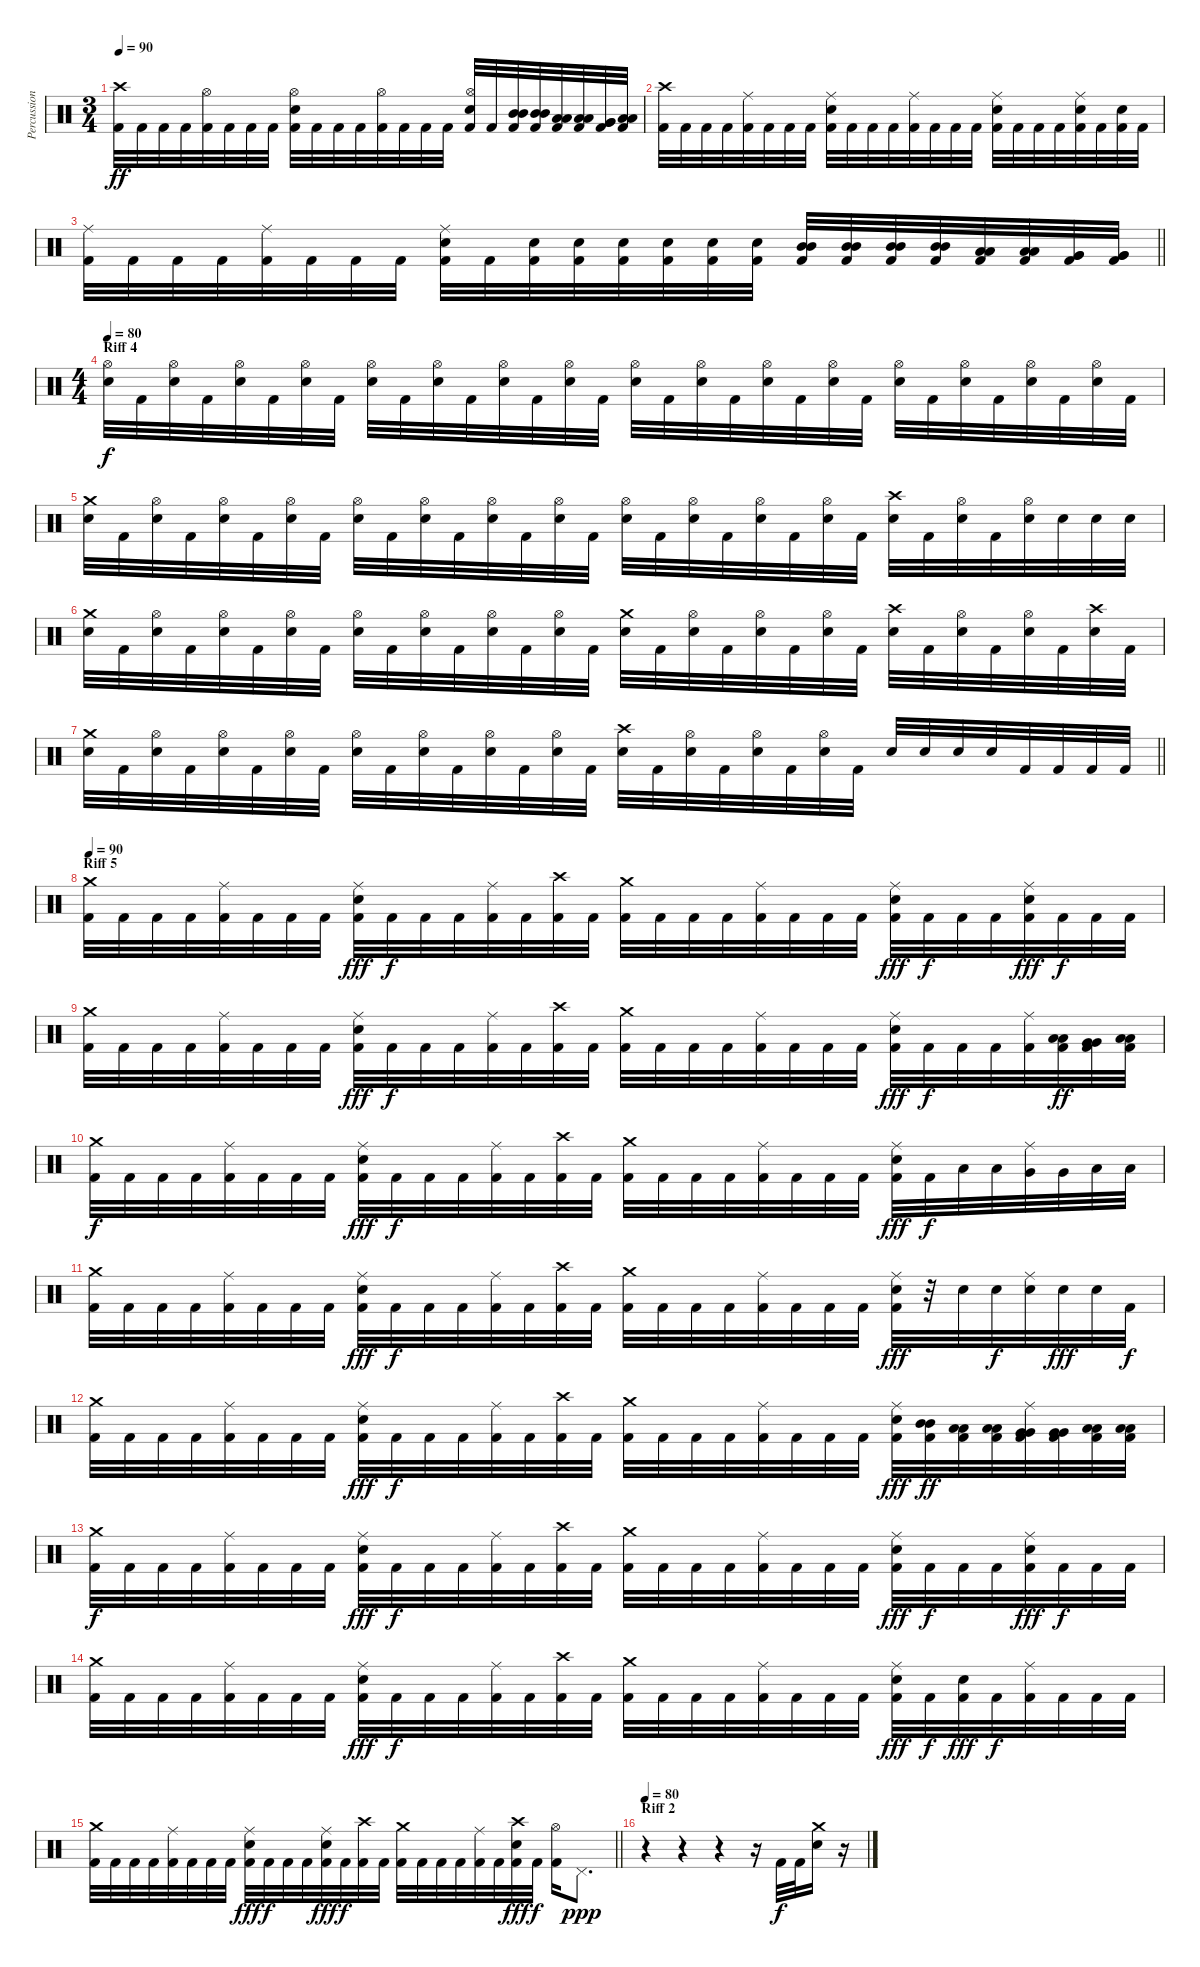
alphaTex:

\track ("Percussion" "Percussion") {instrument percussion}
\staff {score}
\articulation defaults
\ts (3 4)
\tempo 90
\clef neutral
\ks c
("Crash high (hit)" "Kick (hit) 2").32{dy ff} "Kick (hit) 2".32 "Kick (hit) 2".32 "Kick (hit) 2".32 ("Hi-Hat (open)" "Kick (hit) 2").32 "Kick (hit) 2".32 "Kick (hit) 2".32 "Kick (hit) 2".32 ("Hi-Hat (open)" "Electric Snare (hit)" "Kick (hit) 2").32 "Kick (hit) 2".32 "Kick (hit) 2".32 "Kick (hit) 2".32 ("Hi-Hat (open)" "Kick (hit) 2").32 "Kick (hit) 2".32 "Kick (hit) 2".32 "Kick (hit) 2".32 ("Hi-Hat (open)" "Electric Snare (hit)" "Kick (hit) 2").32 "Kick (hit) 2".32 ("Mid Tom (hit)" "Mid Tom (hit)" "Kick (hit) 2").32 ("Mid Tom (hit)" "Mid Tom (hit)" "Kick (hit) 2").32 ("Low Tom (hit)" "Low Tom (hit)" "Kick (hit) 2").32 ("Low Tom (hit)" "Low Tom (hit)" "Kick (hit) 2").32 ("Very Low Tom (hit)" "Very Low Tom (hit)" "Kick (hit) 2").32 ("Low Floor Tom (hit)" "Low Floor Tom (hit)" "Kick (hit) 2").32 |
("Crash high (hit)" "Kick (hit) 2").32 "Kick (hit) 2".32 "Kick (hit) 2".32 "Kick (hit) 2".32 ("Ride (middle)" "Kick (hit) 2").32 "Kick (hit) 2".32 "Kick (hit) 2".32 "Kick (hit) 2".32 ("Ride (middle)" "Electric Snare (hit)" "Kick (hit) 2").32 "Kick (hit) 2".32 "Kick (hit) 2".32 "Kick (hit) 2".32 ("Ride (middle)" "Kick (hit) 2").32 "Kick (hit) 2".32 "Kick (hit) 2".32 "Kick (hit) 2".32 ("Ride (middle)" "Electric Snare (hit)" "Kick (hit) 2").32 "Kick (hit) 2".32 "Kick (hit) 2".32 "Kick (hit) 2".32 ("Ride (middle)" "Electric Snare (hit)" "Kick (hit) 2").32 "Kick (hit) 2".32 ("Electric Snare (hit)" "Kick (hit) 2").32 "Kick (hit) 2".32 |
\barLineRight lightlight
("Ride (middle)" "Kick (hit) 2").32 "Kick (hit) 2".32 "Kick (hit) 2".32 "Kick (hit) 2".32 ("Ride (middle)" "Kick (hit) 2").32 "Kick (hit) 2".32 "Kick (hit) 2".32 "Kick (hit) 2".32 ("Ride (middle)" "Electric Snare (hit)" "Kick (hit) 2").32 "Kick (hit) 2".32 ("Electric Snare (hit)" "Kick (hit) 2").32 ("Electric Snare (hit)" "Kick (hit) 2").32 ("Electric Snare (hit)" "Kick (hit) 2").32 ("Electric Snare (hit)" "Kick (hit) 2").32 ("Electric Snare (hit)" "Kick (hit) 2").32 ("Electric Snare (hit)" "Kick (hit) 2").32 ("Mid Tom (hit)" "Mid Tom (hit)" "Kick (hit) 2").32 ("Mid Tom (hit)" "Mid Tom (hit)" "Kick (hit) 2").32 ("Mid Tom (hit)" "Mid Tom (hit)" "Kick (hit) 2").32 ("Mid Tom (hit)" "Mid Tom (hit)" "Kick (hit) 2").32 ("Low Tom (hit)" "Low Tom (hit)" "Kick (hit) 2").32 ("Low Tom (hit)" "Low Tom (hit)" "Kick (hit) 2").32 ("Very Low Tom (hit)" "Very Low Tom (hit)" "Kick (hit) 2").32 ("Very Low Tom (hit)" "Very Low Tom (hit)" "Kick (hit) 2").32 |
\ts (4 4)
\section ("" "Riff 4")
\tempo 80
("Hi-Hat (open)" "Electric Snare (hit)").32{dy f} "Kick (hit) 2".32 ("Hi-Hat (open)" "Electric Snare (hit)").32 "Kick (hit) 2".32 ("Hi-Hat (open)" "Electric Snare (hit)").32 "Kick (hit) 2".32 ("Hi-Hat (open)" "Electric Snare (hit)").32 "Kick (hit) 2".32 ("Hi-Hat (open)" "Electric Snare (hit)").32 "Kick (hit) 2".32 ("Hi-Hat (open)" "Electric Snare (hit)").32 "Kick (hit) 2".32 ("Hi-Hat (open)" "Electric Snare (hit)").32 "Kick (hit) 2".32 ("Hi-Hat (open)" "Electric Snare (hit)").32 "Kick (hit) 2".32 ("Hi-Hat (open)" "Electric Snare (hit)").32 "Kick (hit) 2".32 ("Hi-Hat (open)" "Electric Snare (hit)").32 "Kick (hit) 2".32 ("Hi-Hat (open)" "Electric Snare (hit)").32 "Kick (hit) 2".32 ("Hi-Hat (open)" "Electric Snare (hit)").32 "Kick (hit) 2".32 ("Hi-Hat (open)" "Electric Snare (hit)").32 "Kick (hit) 2".32 ("Hi-Hat (open)" "Electric Snare (hit)").32 "Kick (hit) 2".32 ("Hi-Hat (open)" "Electric Snare (hit)").32 "Kick (hit) 2".32 ("Hi-Hat (open)" "Electric Snare (hit)").32 "Kick (hit) 2".32 |
("Crash medium (hit)" "Electric Snare (hit)").32 "Kick (hit) 2".32 ("Hi-Hat (open)" "Electric Snare (hit)").32 "Kick (hit) 2".32 ("Hi-Hat (open)" "Electric Snare (hit)").32 "Kick (hit) 2".32 ("Hi-Hat (open)" "Electric Snare (hit)").32 "Kick (hit) 2".32 ("Hi-Hat (open)" "Electric Snare (hit)").32 "Kick (hit) 2".32 ("Hi-Hat (open)" "Electric Snare (hit)").32 "Kick (hit) 2".32 ("Hi-Hat (open)" "Electric Snare (hit)").32 "Kick (hit) 2".32 ("Hi-Hat (open)" "Electric Snare (hit)").32 "Kick (hit) 2".32 ("Hi-Hat (open)" "Electric Snare (hit)").32 "Kick (hit) 2".32 ("Hi-Hat (open)" "Electric Snare (hit)").32 "Kick (hit) 2".32 ("Hi-Hat (open)" "Electric Snare (hit)").32 "Kick (hit) 2".32 ("Hi-Hat (open)" "Electric Snare (hit)").32 "Kick (hit) 2".32 ("Crash high (hit)" "Electric Snare (hit)").32 "Kick (hit) 2".32 ("Hi-Hat (open)" "Electric Snare (hit)").32 "Kick (hit) 2".32 ("Hi-Hat (open)" "Electric Snare (hit)").32 "Electric Snare (hit)".32 "Electric Snare (hit)".32 "Electric Snare (hit)".32 |
("Crash medium (hit)" "Electric Snare (hit)").32 "Kick (hit) 2".32 ("Hi-Hat (open)" "Electric Snare (hit)").32 "Kick (hit) 2".32 ("Hi-Hat (open)" "Electric Snare (hit)").32 "Kick (hit) 2".32 ("Hi-Hat (open)" "Electric Snare (hit)").32 "Kick (hit) 2".32 ("Hi-Hat (open)" "Electric Snare (hit)").32 "Kick (hit) 2".32 ("Hi-Hat (open)" "Electric Snare (hit)").32 "Kick (hit) 2".32 ("Hi-Hat (open)" "Electric Snare (hit)").32 "Kick (hit) 2".32 ("Hi-Hat (open)" "Electric Snare (hit)").32 "Kick (hit) 2".32 ("Crash medium (hit)" "Electric Snare (hit)").32 "Kick (hit) 2".32 ("Hi-Hat (open)" "Electric Snare (hit)").32 "Kick (hit) 2".32 ("Hi-Hat (open)" "Electric Snare (hit)").32 "Kick (hit) 2".32 ("Hi-Hat (open)" "Electric Snare (hit)").32 "Kick (hit) 2".32 ("Crash high (hit)" "Electric Snare (hit)").32 "Kick (hit) 2".32 ("Hi-Hat (open)" "Electric Snare (hit)").32 "Kick (hit) 2".32 ("Hi-Hat (open)" "Electric Snare (hit)").32 "Kick (hit) 2".32 ("Crash high (hit)" "Electric Snare (hit)").32 "Kick (hit) 2".32 |
\barLineRight lightlight
("Crash medium (hit)" "Electric Snare (hit)").32 "Kick (hit) 2".32 ("Hi-Hat (open)" "Electric Snare (hit)").32 "Kick (hit) 2".32 ("Hi-Hat (open)" "Electric Snare (hit)").32 "Kick (hit) 2".32 ("Hi-Hat (open)" "Electric Snare (hit)").32 "Kick (hit) 2".32 ("Hi-Hat (open)" "Electric Snare (hit)").32 "Kick (hit) 2".32 ("Hi-Hat (open)" "Electric Snare (hit)").32 "Kick (hit) 2".32 ("Hi-Hat (open)" "Electric Snare (hit)").32 "Kick (hit) 2".32 ("Hi-Hat (open)" "Electric Snare (hit)").32 "Kick (hit) 2".32 ("Crash high (hit)" "Electric Snare (hit)").32 "Kick (hit) 2".32 ("Hi-Hat (open)" "Electric Snare (hit)").32 "Kick (hit) 2".32 ("Hi-Hat (open)" "Electric Snare (hit)").32 "Kick (hit) 2".32 ("Hi-Hat (open)" "Electric Snare (hit)").32 "Kick (hit) 2".32 "Electric Snare (hit)".32 "Electric Snare (hit)".32 "Electric Snare (hit)".32 "Electric Snare (hit)".32 "Kick (hit) 2".32 "Kick (hit) 2".32 "Kick (hit) 2".32 "Kick (hit) 2".32 |
\section ("" "Riff 5")
\tempo 90
("Crash medium (hit)" "Kick (hit) 2").32 "Kick (hit) 2".32 "Kick (hit) 2".32 "Kick (hit) 2".32 ("Ride (middle)" "Kick (hit) 2").32 "Kick (hit) 2".32 "Kick (hit) 2".32 "Kick (hit) 2".32 ("Ride (middle)" "Electric Snare (hit)" "Kick (hit) 2").32{dy fff} "Kick (hit) 2".32{dy f} "Kick (hit) 2".32 "Kick (hit) 2".32 ("Ride (middle)" "Kick (hit) 2").32 "Kick (hit) 2".32 ("Crash high (hit)" "Kick (hit) 2").32 "Kick (hit) 2".32 ("Crash medium (hit)" "Kick (hit) 2").32 "Kick (hit) 2".32 "Kick (hit) 2".32 "Kick (hit) 2".32 ("Ride (middle)" "Kick (hit) 2").32 "Kick (hit) 2".32 "Kick (hit) 2".32 "Kick (hit) 2".32 ("Ride (middle)" "Electric Snare (hit)" "Kick (hit) 2").32{dy fff} "Kick (hit) 2".32{dy f} "Kick (hit) 2".32 "Kick (hit) 2".32 ("Ride (middle)" "Electric Snare (hit)" "Kick (hit) 2").32{dy fff} "Kick (hit) 2".32{dy f} "Kick (hit) 2".32 "Kick (hit) 2".32 |
("Crash medium (hit)" "Kick (hit) 2").32 "Kick (hit) 2".32 "Kick (hit) 2".32 "Kick (hit) 2".32 ("Ride (middle)" "Kick (hit) 2").32 "Kick (hit) 2".32 "Kick (hit) 2".32 "Kick (hit) 2".32 ("Ride (middle)" "Electric Snare (hit)" "Kick (hit) 2").32{dy fff} "Kick (hit) 2".32{dy f} "Kick (hit) 2".32 "Kick (hit) 2".32 ("Ride (middle)" "Kick (hit) 2").32 "Kick (hit) 2".32 ("Crash high (hit)" "Kick (hit) 2").32 "Kick (hit) 2".32 ("Crash medium (hit)" "Kick (hit) 2").32 "Kick (hit) 2".32 "Kick (hit) 2".32 "Kick (hit) 2".32 ("Ride (middle)" "Kick (hit) 2").32 "Kick (hit) 2".32 "Kick (hit) 2".32 "Kick (hit) 2".32 ("Ride (middle)" "Electric Snare (hit)" "Kick (hit) 2").32{dy fff} "Kick (hit) 2".32{dy f} "Kick (hit) 2".32 "Kick (hit) 2".32 ("Ride (middle)" "Kick (hit) 2").32 ("Low Tom (hit)" "Low Tom (hit)" "Kick (hit) 2").32{dy ff} ("Very Low Tom (hit)" "Very Low Tom (hit)" "Kick (hit) 2").32 ("Low Floor Tom (hit)" "Low Floor Tom (hit)" "Kick (hit) 2").32 |
("Crash medium (hit)" "Kick (hit) 2").32{dy f} "Kick (hit) 2".32 "Kick (hit) 2".32 "Kick (hit) 2".32 ("Ride (middle)" "Kick (hit) 2").32 "Kick (hit) 2".32 "Kick (hit) 2".32 "Kick (hit) 2".32 ("Ride (middle)" "Electric Snare (hit)" "Kick (hit) 2").32{dy fff} "Kick (hit) 2".32{dy f} "Kick (hit) 2".32 "Kick (hit) 2".32 ("Ride (middle)" "Kick (hit) 2").32 "Kick (hit) 2".32 ("Crash high (hit)" "Kick (hit) 2").32 "Kick (hit) 2".32 ("Crash medium (hit)" "Kick (hit) 2").32 "Kick (hit) 2".32 "Kick (hit) 2".32 "Kick (hit) 2".32 ("Ride (middle)" "Kick (hit) 2").32 "Kick (hit) 2".32 "Kick (hit) 2".32 "Kick (hit) 2".32 ("Ride (middle)" "Electric Snare (hit)" "Kick (hit) 2").32{dy fff} "Kick (hit) 2".32{dy f} "Low Tom (hit)".32 "Low Tom (hit)".32 ("Ride (middle)" "Very Low Tom (hit)").32 "Very Low Tom (hit)".32 "Low Floor Tom (hit)".32 "Low Floor Tom (hit)".32 |
("Crash medium (hit)" "Kick (hit) 2").32 "Kick (hit) 2".32 "Kick (hit) 2".32 "Kick (hit) 2".32 ("Ride (middle)" "Kick (hit) 2").32 "Kick (hit) 2".32 "Kick (hit) 2".32 "Kick (hit) 2".32 ("Ride (middle)" "Electric Snare (hit)" "Kick (hit) 2").32{dy fff} "Kick (hit) 2".32{dy f} "Kick (hit) 2".32 "Kick (hit) 2".32 ("Ride (middle)" "Kick (hit) 2").32 "Kick (hit) 2".32 ("Crash high (hit)" "Kick (hit) 2").32 "Kick (hit) 2".32 ("Crash medium (hit)" "Kick (hit) 2").32 "Kick (hit) 2".32 "Kick (hit) 2".32 "Kick (hit) 2".32 ("Ride (middle)" "Kick (hit) 2").32 "Kick (hit) 2".32 "Kick (hit) 2".32 "Kick (hit) 2".32 ("Ride (middle)" "Electric Snare (hit)" "Kick (hit) 2").32{dy fff} r.32 "Electric Snare (hit)".32 "Electric Snare (hit)".32{dy f} ("Ride (middle)" "Electric Snare (hit)").32 "Electric Snare (hit)".32{dy fff} "Electric Snare (hit)".32 "Kick (hit) 2".32{dy f} |
("Crash medium (hit)" "Kick (hit) 2").32 "Kick (hit) 2".32 "Kick (hit) 2".32 "Kick (hit) 2".32 ("Ride (middle)" "Kick (hit) 2").32 "Kick (hit) 2".32 "Kick (hit) 2".32 "Kick (hit) 2".32 ("Ride (middle)" "Electric Snare (hit)" "Kick (hit) 2").32{dy fff} "Kick (hit) 2".32{dy f} "Kick (hit) 2".32 "Kick (hit) 2".32 ("Ride (middle)" "Kick (hit) 2").32 "Kick (hit) 2".32 ("Crash high (hit)" "Kick (hit) 2").32 "Kick (hit) 2".32 ("Crash medium (hit)" "Kick (hit) 2").32 "Kick (hit) 2".32 "Kick (hit) 2".32 "Kick (hit) 2".32 ("Ride (middle)" "Kick (hit) 2").32 "Kick (hit) 2".32 "Kick (hit) 2".32 "Kick (hit) 2".32 ("Ride (middle)" "Electric Snare (hit)" "Kick (hit) 2").32{dy fff} ("Mid Tom (hit)" "Mid Tom (hit)" "Kick (hit) 2").32{dy ff} ("Low Tom (hit)" "Low Tom (hit)" "Kick (hit) 2").32 ("Low Tom (hit)" "Low Tom (hit)" "Kick (hit) 2").32 ("Ride (middle)" "Very Low Tom (hit)" "Very Low Tom (hit)" "Kick (hit) 2").32 ("Very Low Tom (hit)" "Very Low Tom (hit)" "Kick (hit) 2").32 ("Low Floor Tom (hit)" "Low Floor Tom (hit)" "Kick (hit) 2").32 ("Low Floor Tom (hit)" "Low Floor Tom (hit)" "Kick (hit) 2").32 |
("Crash medium (hit)" "Kick (hit) 2").32{dy f} "Kick (hit) 2".32 "Kick (hit) 2".32 "Kick (hit) 2".32 ("Ride (middle)" "Kick (hit) 2").32 "Kick (hit) 2".32 "Kick (hit) 2".32 "Kick (hit) 2".32 ("Ride (middle)" "Electric Snare (hit)" "Kick (hit) 2").32{dy fff} "Kick (hit) 2".32{dy f} "Kick (hit) 2".32 "Kick (hit) 2".32 ("Ride (middle)" "Kick (hit) 2").32 "Kick (hit) 2".32 ("Crash high (hit)" "Kick (hit) 2").32 "Kick (hit) 2".32 ("Crash medium (hit)" "Kick (hit) 2").32 "Kick (hit) 2".32 "Kick (hit) 2".32 "Kick (hit) 2".32 ("Ride (middle)" "Kick (hit) 2").32 "Kick (hit) 2".32 "Kick (hit) 2".32 "Kick (hit) 2".32 ("Ride (middle)" "Electric Snare (hit)" "Kick (hit) 2").32{dy fff} "Kick (hit) 2".32{dy f} "Kick (hit) 2".32 "Kick (hit) 2".32 ("Ride (middle)" "Electric Snare (hit)" "Kick (hit) 2").32{dy fff} "Kick (hit) 2".32{dy f} "Kick (hit) 2".32 "Kick (hit) 2".32 |
("Crash medium (hit)" "Kick (hit) 2").32 "Kick (hit) 2".32 "Kick (hit) 2".32 "Kick (hit) 2".32 ("Ride (middle)" "Kick (hit) 2").32 "Kick (hit) 2".32 "Kick (hit) 2".32 "Kick (hit) 2".32 ("Ride (middle)" "Electric Snare (hit)" "Kick (hit) 2").32{dy fff} "Kick (hit) 2".32{dy f} "Kick (hit) 2".32 "Kick (hit) 2".32 ("Ride (middle)" "Kick (hit) 2").32 "Kick (hit) 2".32 ("Crash high (hit)" "Kick (hit) 2").32 "Kick (hit) 2".32 ("Crash medium (hit)" "Kick (hit) 2").32 "Kick (hit) 2".32 "Kick (hit) 2".32 "Kick (hit) 2".32 ("Ride (middle)" "Kick (hit) 2").32 "Kick (hit) 2".32 "Kick (hit) 2".32 "Kick (hit) 2".32 ("Ride (middle)" "Electric Snare (hit)" "Kick (hit) 2").32{dy fff} "Kick (hit) 2".32{dy f} ("Electric Snare (hit)" "Kick (hit) 2").32{dy fff} "Kick (hit) 2".32{dy f} ("Ride (middle)" "Kick (hit) 2").32 "Kick (hit) 2".32 "Kick (hit) 2".32 "Kick (hit) 2".32 |
\barLineRight lightlight
("Crash medium (hit)" "Kick (hit) 2").32 "Kick (hit) 2".32 "Kick (hit) 2".32 "Kick (hit) 2".32 ("Ride (middle)" "Kick (hit) 2").32 "Kick (hit) 2".32 "Kick (hit) 2".32 "Kick (hit) 2".32 ("Ride (middle)" "Electric Snare (hit)" "Kick (hit) 2").32{dy fff} "Kick (hit) 2".32{dy f} "Kick (hit) 2".32 "Kick (hit) 2".32 ("Ride (middle)" "Electric Snare (hit)" "Kick (hit) 2").32{dy fff} "Kick (hit) 2".32{dy f} ("Crash high (hit)" "Kick (hit) 2").32 "Kick (hit) 2".32 ("Crash medium (hit)" "Kick (hit) 2").32 "Kick (hit) 2".32 "Kick (hit) 2".32 "Kick (hit) 2".32 ("Ride (middle)" "Kick (hit) 2").32 "Kick (hit) 2".32 ("Crash high (hit)" "Electric Snare (hit)" "Kick (hit) 2").32{dy fff} "Kick (hit) 2".32{dy f} ("Hi-Hat (open)" "Kick (hit) 2").16 "Pedal Hi-Hat (hit)".8{d dy ppp} |
\section ("" "Riff 2")
\tempo 80
r.4 r.4 r.4 r.16 "Kick (hit) 2".32{dy f} "Kick (hit) 2".32 ("Crash medium (hit)" "Electric Snare (hit)").16 r.16
